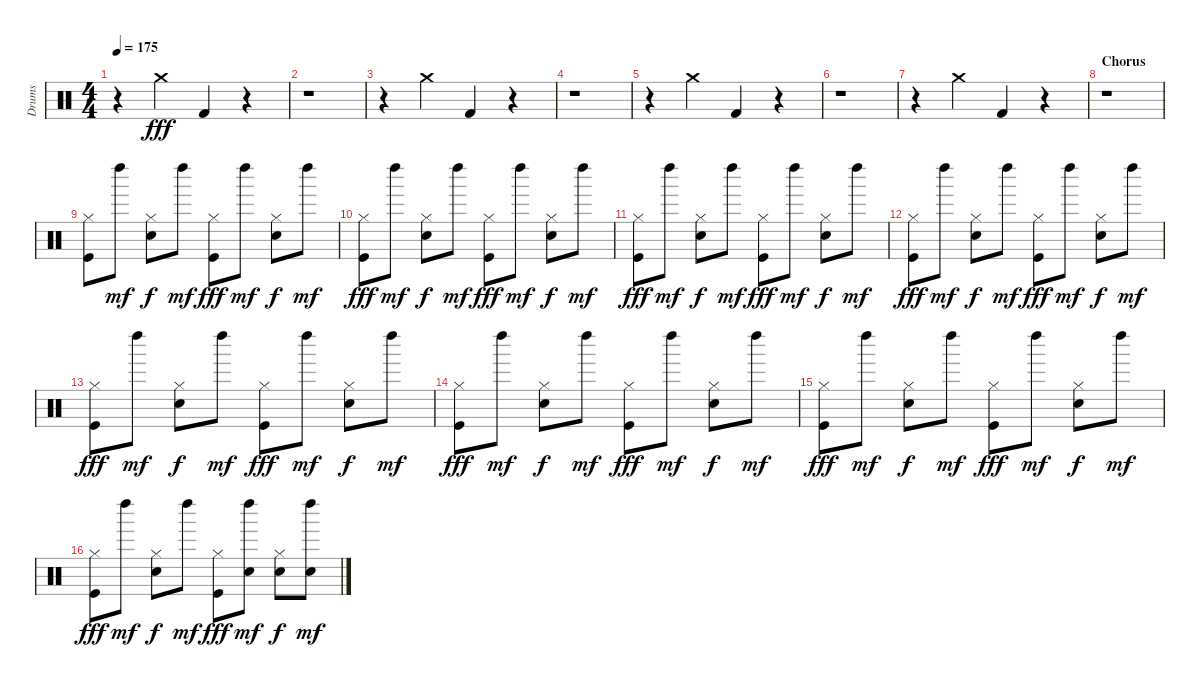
\track ("Drums" "Drums") {instrument percussion}
\staff {score}
\articulation defaults
\ts (4 4)
\tempo 175
\clef neutral
\ks c
r.4{dy mp} "Crash medium (hit)".4{dy fff balance 8} "Kick (hit) 2".4 r.4 |
r.1 |
r.4 "Crash medium (hit)".4 "Kick (hit) 2".4 r.4 |
r.1 |
r.4 "Crash medium (hit)".4 "Kick (hit) 2".4 r.4 |
r.1 |
r.4 "Crash medium (hit)".4 "Kick (hit) 2".4 r.4 |
\section ("" "Chorus")
r.1 |
("Hi-Hat (closed)" "Kick (hit)").8 "Left Maraca (hit)".8{dy mf} ("Hi-Hat (closed)" "Snare (hit) 2").8{dy f} "Left Maraca (hit)".8{dy mf} ("Hi-Hat (closed)" "Kick (hit)").8{dy fff} "Left Maraca (hit)".8{dy mf} ("Hi-Hat (closed)" "Snare (hit) 2").8{dy f} "Left Maraca (hit)".8{dy mf} |
("Hi-Hat (closed)" "Kick (hit)").8{dy fff} "Left Maraca (hit)".8{dy mf} ("Hi-Hat (closed)" "Snare (hit) 2").8{dy f} "Left Maraca (hit)".8{dy mf} ("Hi-Hat (closed)" "Kick (hit)").8{dy fff} "Left Maraca (hit)".8{dy mf} ("Hi-Hat (closed)" "Snare (hit) 2").8{dy f} "Left Maraca (hit)".8{dy mf} |
("Hi-Hat (closed)" "Kick (hit)").8{dy fff} "Left Maraca (hit)".8{dy mf} ("Hi-Hat (closed)" "Snare (hit) 2").8{dy f} "Left Maraca (hit)".8{dy mf} ("Hi-Hat (closed)" "Kick (hit)").8{dy fff} "Left Maraca (hit)".8{dy mf} ("Hi-Hat (closed)" "Snare (hit) 2").8{dy f} "Left Maraca (hit)".8{dy mf} |
("Hi-Hat (closed)" "Kick (hit)").8{dy fff} "Left Maraca (hit)".8{dy mf} ("Hi-Hat (closed)" "Snare (hit) 2").8{dy f} "Left Maraca (hit)".8{dy mf} ("Hi-Hat (closed)" "Kick (hit)").8{dy fff} "Left Maraca (hit)".8{dy mf} ("Hi-Hat (closed)" "Snare (hit) 2").8{dy f} "Left Maraca (hit)".8{dy mf} |
("Hi-Hat (closed)" "Kick (hit)").8{dy fff} "Left Maraca (hit)".8{dy mf} ("Hi-Hat (closed)" "Snare (hit) 2").8{dy f} "Left Maraca (hit)".8{dy mf} ("Hi-Hat (closed)" "Kick (hit)").8{dy fff} "Left Maraca (hit)".8{dy mf} ("Hi-Hat (closed)" "Snare (hit) 2").8{dy f} "Left Maraca (hit)".8{dy mf} |
("Hi-Hat (closed)" "Kick (hit)").8{dy fff} "Left Maraca (hit)".8{dy mf} ("Hi-Hat (closed)" "Snare (hit) 2").8{dy f} "Left Maraca (hit)".8{dy mf} ("Hi-Hat (closed)" "Kick (hit)").8{dy fff} "Left Maraca (hit)".8{dy mf} ("Hi-Hat (closed)" "Snare (hit) 2").8{dy f} "Left Maraca (hit)".8{dy mf} |
("Hi-Hat (closed)" "Kick (hit)").8{dy fff} "Left Maraca (hit)".8{dy mf} ("Hi-Hat (closed)" "Snare (hit) 2").8{dy f} "Left Maraca (hit)".8{dy mf} ("Hi-Hat (closed)" "Kick (hit)").8{dy fff} "Left Maraca (hit)".8{dy mf} ("Hi-Hat (closed)" "Snare (hit) 2").8{dy f} "Left Maraca (hit)".8{dy mf} |
("Hi-Hat (closed)" "Kick (hit)").8{dy fff} "Left Maraca (hit)".8{dy mf} ("Hi-Hat (closed)" "Snare (hit) 2").8{dy f} "Left Maraca (hit)".8{dy mf} ("Hi-Hat (closed)" "Kick (hit)").8{dy fff} ("Left Maraca (hit)" "Snare (hit) 2").8{dy mf} ("Hi-Hat (closed)" "Snare (hit) 2").8{dy f} ("Left Maraca (hit)" "Snare (hit) 2").8{dy mf}
